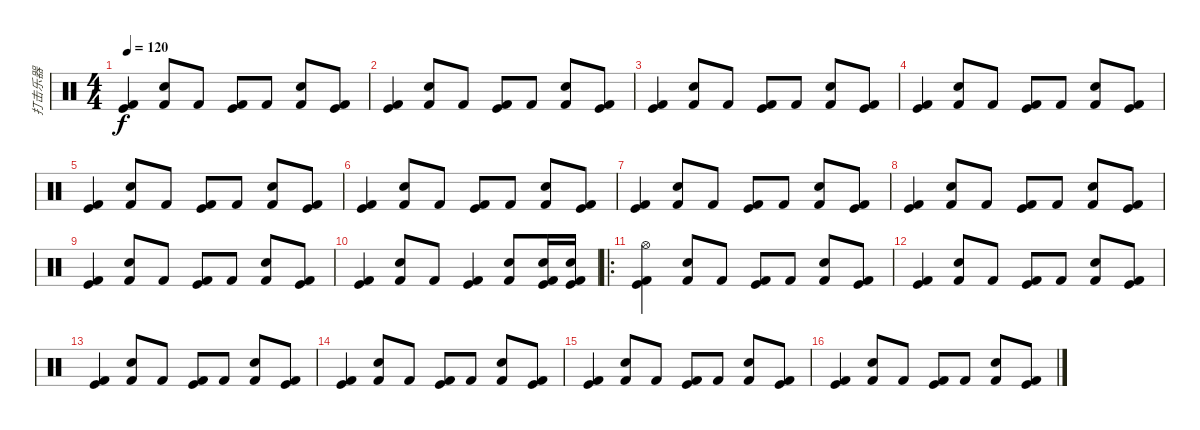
\track ("打击乐器" "打击乐器") {instrument percussion}
\staff {score}
\articulation defaults
\ts (4 4)
\tempo 120
\clef neutral
\ks c
("Kick (hit) 2" "Kick (hit)").4{dy f} ("Kick (hit) 2" "Electric Snare (hit)").8 "Kick (hit) 2".8 ("Kick (hit) 2" "Kick (hit)").8 "Kick (hit) 2".8 ("Kick (hit) 2" "Electric Snare (hit)").8 ("Kick (hit) 2" "Kick (hit)").8 |
("Kick (hit) 2" "Kick (hit)").4 ("Kick (hit) 2" "Electric Snare (hit)").8 "Kick (hit) 2".8 ("Kick (hit) 2" "Kick (hit)").8 "Kick (hit) 2".8 ("Kick (hit) 2" "Electric Snare (hit)").8 ("Kick (hit) 2" "Kick (hit)").8 |
("Kick (hit) 2" "Kick (hit)").4 ("Kick (hit) 2" "Electric Snare (hit)").8 "Kick (hit) 2".8 ("Kick (hit) 2" "Kick (hit)").8 "Kick (hit) 2".8 ("Kick (hit) 2" "Electric Snare (hit)").8 ("Kick (hit) 2" "Kick (hit)").8 |
("Kick (hit) 2" "Kick (hit)").4 ("Kick (hit) 2" "Electric Snare (hit)").8 "Kick (hit) 2".8 ("Kick (hit) 2" "Kick (hit)").8 "Kick (hit) 2".8 ("Kick (hit) 2" "Electric Snare (hit)").8 ("Kick (hit) 2" "Kick (hit)").8 |
("Kick (hit) 2" "Kick (hit)").4 ("Kick (hit) 2" "Electric Snare (hit)").8 "Kick (hit) 2".8 ("Kick (hit) 2" "Kick (hit)").8 "Kick (hit) 2".8 ("Kick (hit) 2" "Electric Snare (hit)").8 ("Kick (hit) 2" "Kick (hit)").8 |
("Kick (hit) 2" "Kick (hit)").4 ("Kick (hit) 2" "Electric Snare (hit)").8 "Kick (hit) 2".8 ("Kick (hit) 2" "Kick (hit)").8 "Kick (hit) 2".8 ("Kick (hit) 2" "Electric Snare (hit)").8 ("Kick (hit) 2" "Kick (hit)").8 |
("Kick (hit) 2" "Kick (hit)").4 ("Kick (hit) 2" "Electric Snare (hit)").8 "Kick (hit) 2".8 ("Kick (hit) 2" "Kick (hit)").8 "Kick (hit) 2".8 ("Kick (hit) 2" "Electric Snare (hit)").8 ("Kick (hit) 2" "Kick (hit)").8 |
("Kick (hit) 2" "Kick (hit)").4 ("Kick (hit) 2" "Electric Snare (hit)").8 "Kick (hit) 2".8 ("Kick (hit) 2" "Kick (hit)").8 "Kick (hit) 2".8 ("Kick (hit) 2" "Electric Snare (hit)").8 ("Kick (hit) 2" "Kick (hit)").8 |
("Kick (hit) 2" "Kick (hit)").4 ("Kick (hit) 2" "Electric Snare (hit)").8 "Kick (hit) 2".8 ("Kick (hit) 2" "Kick (hit)").8 "Kick (hit) 2".8 ("Kick (hit) 2" "Electric Snare (hit)").8 ("Kick (hit) 2" "Kick (hit)").8 |
("Kick (hit) 2" "Kick (hit)").4 ("Kick (hit) 2" "Electric Snare (hit)").8 "Kick (hit) 2".8 ("Kick (hit) 2" "Kick (hit)").4 ("Kick (hit) 2" "Electric Snare (hit)").8 ("Kick (hit) 2" "Kick (hit)" "Electric Snare (hit)").16 ("Kick (hit) 2" "Kick (hit)" "Electric Snare (hit)").16 |
\ro
("Kick (hit) 2" "Kick (hit)" "Hi-Hat (open)").4 ("Kick (hit) 2" "Electric Snare (hit)").8 "Kick (hit) 2".8 ("Kick (hit) 2" "Kick (hit)").8 "Kick (hit) 2".8 ("Kick (hit) 2" "Electric Snare (hit)").8 ("Kick (hit) 2" "Kick (hit)").8 |
("Kick (hit) 2" "Kick (hit)").4 ("Kick (hit) 2" "Electric Snare (hit)").8 "Kick (hit) 2".8 ("Kick (hit) 2" "Kick (hit)").8 "Kick (hit) 2".8 ("Kick (hit) 2" "Electric Snare (hit)").8 ("Kick (hit) 2" "Kick (hit)").8 |
("Kick (hit) 2" "Kick (hit)").4 ("Kick (hit) 2" "Electric Snare (hit)").8 "Kick (hit) 2".8 ("Kick (hit) 2" "Kick (hit)").8 "Kick (hit) 2".8 ("Kick (hit) 2" "Electric Snare (hit)").8 ("Kick (hit) 2" "Kick (hit)").8 |
("Kick (hit) 2" "Kick (hit)").4 ("Kick (hit) 2" "Electric Snare (hit)").8 "Kick (hit) 2".8 ("Kick (hit) 2" "Kick (hit)").8 "Kick (hit) 2".8 ("Kick (hit) 2" "Electric Snare (hit)").8 ("Kick (hit) 2" "Kick (hit)").8 |
("Kick (hit) 2" "Kick (hit)").4 ("Kick (hit) 2" "Electric Snare (hit)").8 "Kick (hit) 2".8 ("Kick (hit) 2" "Kick (hit)").8 "Kick (hit) 2".8 ("Kick (hit) 2" "Electric Snare (hit)").8 ("Kick (hit) 2" "Kick (hit)").8 |
("Kick (hit) 2" "Kick (hit)").4 ("Kick (hit) 2" "Electric Snare (hit)").8 "Kick (hit) 2".8 ("Kick (hit) 2" "Kick (hit)").8 "Kick (hit) 2".8 ("Kick (hit) 2" "Electric Snare (hit)").8 ("Kick (hit) 2" "Kick (hit)").8
